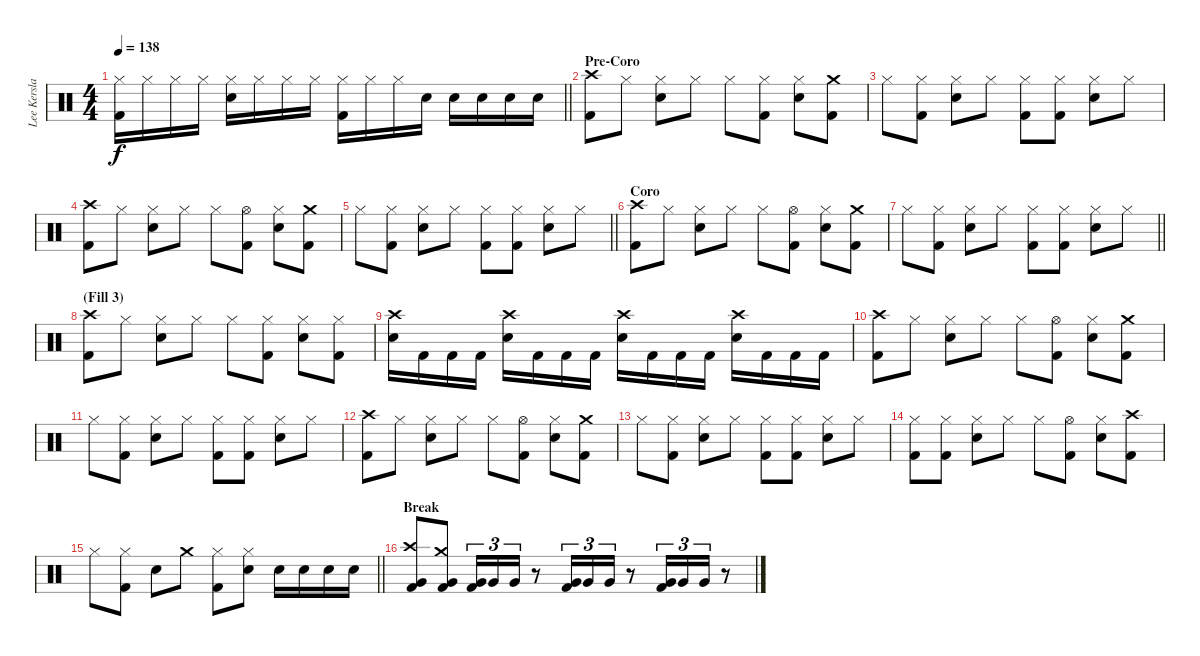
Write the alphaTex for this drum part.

\track ("Lee Kerslake" "Lee Kersla") {instrument percussion}
\staff {score}
\articulation defaults
\ts (4 4)
\tempo 138
\clef neutral
\barLineRight lightlight
\ks c
("Hi-Hat (closed)" "Kick (hit) 2").16{dy f} "Hi-Hat (closed)".16 "Hi-Hat (closed)".16 "Hi-Hat (closed)".16 ("Hi-Hat (closed)" "Snare (hit) 2").16 "Hi-Hat (closed)".16 "Hi-Hat (closed)".16 "Hi-Hat (closed)".16 ("Hi-Hat (closed)" "Kick (hit) 2").16 "Hi-Hat (closed)".16 "Hi-Hat (closed)".16 "Snare (hit) 2".16 "Snare (hit) 2".16 "Snare (hit) 2".16 "Snare (hit) 2".16 "Snare (hit) 2".16 |
\section ("" "Pre-Coro")
("Crash high (hit)" "Kick (hit) 2").8 "Hi-Hat (closed)".8 ("Hi-Hat (closed)" "Snare (hit) 2").8 "Hi-Hat (closed)".8 "Hi-Hat (closed)".8 ("Hi-Hat (closed)" "Kick (hit) 2").8 ("Hi-Hat (closed)" "Snare (hit) 2").8 ("Crash medium (hit)" "Kick (hit) 2").8 |
"Hi-Hat (closed)".8 ("Hi-Hat (closed)" "Kick (hit) 2").8 ("Hi-Hat (closed)" "Snare (hit) 2").8 "Hi-Hat (closed)".8 ("Hi-Hat (closed)" "Kick (hit) 2").8 ("Hi-Hat (closed)" "Kick (hit) 2").8 ("Hi-Hat (closed)" "Snare (hit) 2").8 "Hi-Hat (closed)".8 |
("Crash high (hit)" "Kick (hit) 2").8 "Hi-Hat (closed)".8 ("Hi-Hat (closed)" "Snare (hit) 2").8 "Hi-Hat (closed)".8 "Hi-Hat (closed)".8 ("Hi-Hat (open)" "Kick (hit) 2").8 ("Hi-Hat (closed)" "Snare (hit) 2").8 ("Crash medium (hit)" "Kick (hit) 2").8 |
\barLineRight lightlight "Hi-Hat (closed)".8
("Hi-Hat (closed)" "Kick (hit) 2").8 ("Hi-Hat (closed)" "Snare (hit) 2").8 "Hi-Hat (closed)".8 ("Hi-Hat (closed)" "Kick (hit) 2").8 ("Hi-Hat (closed)" "Kick (hit) 2").8 ("Hi-Hat (closed)" "Snare (hit) 2").8 "Hi-Hat (closed)".8 |
\section ("" "Coro")
("Crash high (hit)" "Kick (hit) 2").8 "Hi-Hat (closed)".8 ("Hi-Hat (closed)" "Snare (hit) 2").8 "Hi-Hat (closed)".8 "Hi-Hat (closed)".8 ("Hi-Hat (open)" "Kick (hit) 2").8 ("Hi-Hat (closed)" "Snare (hit) 2").8 ("Crash medium (hit)" "Kick (hit) 2").8 |
\barLineRight lightlight "Hi-Hat (closed)".8
("Hi-Hat (closed)" "Kick (hit) 2").8 ("Hi-Hat (closed)" "Snare (hit) 2").8 "Hi-Hat (closed)".8 ("Hi-Hat (closed)" "Kick (hit) 2").8 ("Hi-Hat (closed)" "Kick (hit) 2").8 ("Hi-Hat (closed)" "Snare (hit) 2").8 "Hi-Hat (closed)".8 |
\section ("" "(Fill 3)")
("Crash high (hit)" "Kick (hit) 2").8 "Hi-Hat (closed)".8 ("Hi-Hat (closed)" "Snare (hit) 2").8 "Hi-Hat (closed)".8 "Hi-Hat (closed)".8 ("Hi-Hat (closed)" "Kick (hit) 2").8 ("Hi-Hat (closed)" "Snare (hit) 2").8 ("Hi-Hat (closed)" "Kick (hit) 2").8 |
("Snare (hit) 2" "Crash high (hit)").16 "Kick (hit) 2".16 "Kick (hit) 2".16 "Kick (hit) 2".16 ("Snare (hit) 2" "Crash high (hit)").16 "Kick (hit) 2".16 "Kick (hit) 2".16 "Kick (hit) 2".16 ("Snare (hit) 2" "Crash high (hit)").16 "Kick (hit) 2".16 "Kick (hit) 2".16 "Kick (hit) 2".16 ("Snare (hit) 2" "Crash high (hit)").16 "Kick (hit) 2".16 "Kick (hit) 2".16 "Kick (hit) 2".16 |
("Crash high (hit)" "Kick (hit) 2").8 "Hi-Hat (closed)".8 ("Hi-Hat (closed)" "Snare (hit) 2").8 "Hi-Hat (closed)".8 "Hi-Hat (closed)".8 ("Hi-Hat (open)" "Kick (hit) 2").8 ("Hi-Hat (closed)" "Snare (hit) 2").8 ("Crash medium (hit)" "Kick (hit) 2").8 |
"Hi-Hat (closed)".8 ("Hi-Hat (closed)" "Kick (hit) 2").8 ("Hi-Hat (closed)" "Snare (hit) 2").8 "Hi-Hat (closed)".8 ("Hi-Hat (closed)" "Kick (hit) 2").8 ("Hi-Hat (closed)" "Kick (hit) 2").8 ("Hi-Hat (closed)" "Snare (hit) 2").8 "Hi-Hat (closed)".8 |
("Crash high (hit)" "Kick (hit) 2").8 "Hi-Hat (closed)".8 ("Hi-Hat (closed)" "Snare (hit) 2").8 "Hi-Hat (closed)".8 "Hi-Hat (closed)".8 ("Hi-Hat (open)" "Kick (hit) 2").8 ("Hi-Hat (closed)" "Snare (hit) 2").8 ("Crash medium (hit)" "Kick (hit) 2").8 |
"Hi-Hat (closed)".8 ("Hi-Hat (closed)" "Kick (hit) 2").8 ("Hi-Hat (closed)" "Snare (hit) 2").8 "Hi-Hat (closed)".8 ("Hi-Hat (closed)" "Kick (hit) 2").8 ("Hi-Hat (closed)" "Kick (hit) 2").8 ("Hi-Hat (closed)" "Snare (hit) 2").8 "Hi-Hat (closed)".8 |
("Hi-Hat (closed)" "Kick (hit) 2").8 ("Hi-Hat (closed)" "Kick (hit) 2").8 ("Hi-Hat (closed)" "Snare (hit) 2").8 "Hi-Hat (closed)".8 "Hi-Hat (closed)".8 ("Hi-Hat (open)" "Kick (hit) 2").8 ("Hi-Hat (closed)" "Snare (hit) 2").8 ("Crash high (hit)" "Kick (hit) 2").8 |
\barLineRight lightlight "Hi-Hat (closed)".8
("Hi-Hat (closed)" "Kick (hit) 2").8 "Snare (hit) 2".8 "Crash medium (hit)".8 ("Hi-Hat (closed)" "Kick (hit) 2").8 ("Hi-Hat (closed)" "Snare (hit) 2").8 "Snare (hit) 2".16 "Snare (hit) 2".16 "Snare (hit) 2".16 "Snare (hit) 2".16 |
\section ("" "Break")
("Very Low Tom (hit)" "Crash high (hit)" "Kick (hit) 2").8 ("Very Low Tom (hit)" "Crash medium (hit)" "Kick (hit) 2").8 ("Very Low Tom (hit)" "Kick (hit) 2").16{tu (3 2)} "Very Low Tom (hit)".16{tu (3 2)} "Very Low Tom (hit)".16{tu (3 2)} r.8 ("Very Low Tom (hit)" "Kick (hit) 2").16{tu (3 2)} "Very Low Tom (hit)".16{tu (3 2)} "Very Low Tom (hit)".16{tu (3 2)} r.8 ("Very Low Tom (hit)" "Kick (hit) 2").16{tu (3 2)} "Very Low Tom (hit)".16{tu (3 2)} "Very Low Tom (hit)".16{tu (3 2)} r.8
